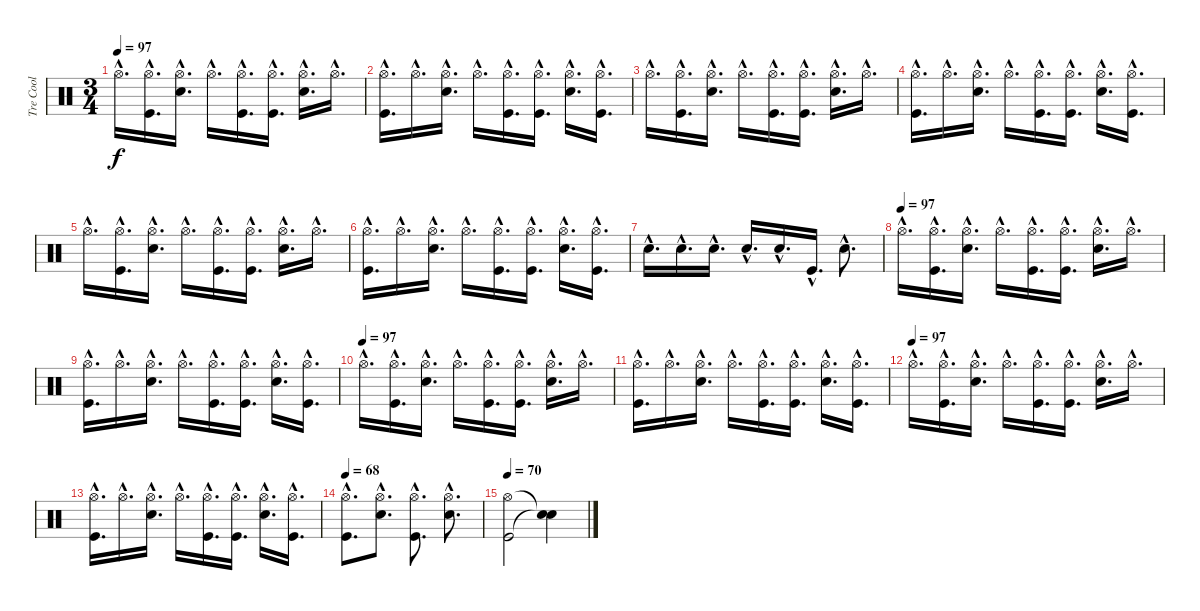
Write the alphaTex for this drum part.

\track ("Tre Cool" "Tre Cool") {instrument percussion}
\staff {score}
\articulation defaults
\ts (3 4)
\tempo 97
\clef neutral
\ks c "Hi-Hat (open)"{hac}.16{d dy f}
("Kick (hit)"{hac} "Hi-Hat (open)"{hac}).16{d} ("Snare (hit) 2"{hac} "Hi-Hat (open)"{hac}).16{d} "Hi-Hat (open)"{hac}.16{d} ("Kick (hit)"{hac} "Hi-Hat (open)"{hac}).16{d} ("Kick (hit)"{hac} "Hi-Hat (open)"{hac}).16{d} ("Snare (hit) 2"{hac} "Hi-Hat (open)"{hac}).16{d} "Hi-Hat (open)"{hac}.16{d} |
("Kick (hit)"{hac} "Hi-Hat (open)"{hac}).16{d} "Hi-Hat (open)"{hac}.16{d} ("Snare (hit) 2"{hac} "Hi-Hat (open)"{hac}).16{d} "Hi-Hat (open)"{hac}.16{d} ("Kick (hit)"{hac} "Hi-Hat (open)"{hac}).16{d} ("Kick (hit)"{hac} "Hi-Hat (open)"{hac}).16{d} ("Snare (hit) 2"{hac} "Hi-Hat (open)"{hac}).16{d} ("Kick (hit)"{hac} "Hi-Hat (open)"{hac}).16{d} |
"Hi-Hat (open)"{hac}.16{d} ("Kick (hit)"{hac} "Hi-Hat (open)"{hac}).16{d} ("Snare (hit) 2"{hac} "Hi-Hat (open)"{hac}).16{d} "Hi-Hat (open)"{hac}.16{d} ("Kick (hit)"{hac} "Hi-Hat (open)"{hac}).16{d} ("Kick (hit)"{hac} "Hi-Hat (open)"{hac}).16{d} ("Snare (hit) 2"{hac} "Hi-Hat (open)"{hac}).16{d} "Hi-Hat (open)"{hac}.16{d} |
("Kick (hit)"{hac} "Hi-Hat (open)"{hac}).16{d} "Hi-Hat (open)"{hac}.16{d} ("Snare (hit) 2"{hac} "Hi-Hat (open)"{hac}).16{d} "Hi-Hat (open)"{hac}.16{d} ("Kick (hit)"{hac} "Hi-Hat (open)"{hac}).16{d} ("Kick (hit)"{hac} "Hi-Hat (open)"{hac}).16{d} ("Snare (hit) 2"{hac} "Hi-Hat (open)"{hac}).16{d} ("Kick (hit)"{hac} "Hi-Hat (open)"{hac}).16{d} |
"Hi-Hat (open)"{hac}.16{d} ("Kick (hit)"{hac} "Hi-Hat (open)"{hac}).16{d} ("Snare (hit) 2"{hac} "Hi-Hat (open)"{hac}).16{d} "Hi-Hat (open)"{hac}.16{d} ("Kick (hit)"{hac} "Hi-Hat (open)"{hac}).16{d} ("Kick (hit)"{hac} "Hi-Hat (open)"{hac}).16{d} ("Snare (hit) 2"{hac} "Hi-Hat (open)"{hac}).16{d} "Hi-Hat (open)"{hac}.16{d} |
("Kick (hit)"{hac} "Hi-Hat (open)"{hac}).16{d} "Hi-Hat (open)"{hac}.16{d} ("Snare (hit) 2"{hac} "Hi-Hat (open)"{hac}).16{d} "Hi-Hat (open)"{hac}.16{d} ("Kick (hit)"{hac} "Hi-Hat (open)"{hac}).16{d} ("Kick (hit)"{hac} "Hi-Hat (open)"{hac}).16{d} ("Snare (hit) 2"{hac} "Hi-Hat (open)"{hac}).16{d} ("Kick (hit)"{hac} "Hi-Hat (open)"{hac}).16{d} |
"Snare (hit) 2"{hac}.16{d} "Snare (hit) 2"{hac}.16{d} "Snare (hit) 2"{hac}.16{d} "Snare (hit) 2"{hac}.16{d} "Snare (hit) 2"{hac}.16{d} "Kick (hit)"{hac}.16{d} "Snare (hit) 2"{hac}.8{d} |
\tempo (97)
"Hi-Hat (open)"{hac}.16{d} ("Kick (hit)"{hac} "Hi-Hat (open)"{hac}).16{d} ("Snare (hit) 2"{hac} "Hi-Hat (open)"{hac}).16{d} "Hi-Hat (open)"{hac}.16{d} ("Kick (hit)"{hac} "Hi-Hat (open)"{hac}).16{d} ("Kick (hit)"{hac} "Hi-Hat (open)"{hac}).16{d} ("Snare (hit) 2"{hac} "Hi-Hat (open)"{hac}).16{d} "Hi-Hat (open)"{hac}.16{d} |
("Kick (hit)"{hac} "Hi-Hat (open)"{hac}).16{d} "Hi-Hat (open)"{hac}.16{d} ("Snare (hit) 2"{hac} "Hi-Hat (open)"{hac}).16{d} "Hi-Hat (open)"{hac}.16{d} ("Kick (hit)"{hac} "Hi-Hat (open)"{hac}).16{d} ("Kick (hit)"{hac} "Hi-Hat (open)"{hac}).16{d} ("Snare (hit) 2"{hac} "Hi-Hat (open)"{hac}).16{d} ("Kick (hit)"{hac} "Hi-Hat (open)"{hac}).16{d} |
\tempo (97)
"Hi-Hat (open)"{hac}.16{d} ("Kick (hit)"{hac} "Hi-Hat (open)"{hac}).16{d} ("Snare (hit) 2"{hac} "Hi-Hat (open)"{hac}).16{d} "Hi-Hat (open)"{hac}.16{d} ("Kick (hit)"{hac} "Hi-Hat (open)"{hac}).16{d} ("Kick (hit)"{hac} "Hi-Hat (open)"{hac}).16{d} ("Snare (hit) 2"{hac} "Hi-Hat (open)"{hac}).16{d} "Hi-Hat (open)"{hac}.16{d} |
("Kick (hit)"{hac} "Hi-Hat (open)"{hac}).16{d} "Hi-Hat (open)"{hac}.16{d} ("Snare (hit) 2"{hac} "Hi-Hat (open)"{hac}).16{d} "Hi-Hat (open)"{hac}.16{d} ("Kick (hit)"{hac} "Hi-Hat (open)"{hac}).16{d} ("Kick (hit)"{hac} "Hi-Hat (open)"{hac}).16{d} ("Snare (hit) 2"{hac} "Hi-Hat (open)"{hac}).16{d} ("Kick (hit)"{hac} "Hi-Hat (open)"{hac}).16{d} |
\tempo (97)
"Hi-Hat (open)"{hac}.16{d} ("Kick (hit)"{hac} "Hi-Hat (open)"{hac}).16{d} ("Snare (hit) 2"{hac} "Hi-Hat (open)"{hac}).16{d} "Hi-Hat (open)"{hac}.16{d} ("Kick (hit)"{hac} "Hi-Hat (open)"{hac}).16{d} ("Kick (hit)"{hac} "Hi-Hat (open)"{hac}).16{d} ("Snare (hit) 2"{hac} "Hi-Hat (open)"{hac}).16{d} "Hi-Hat (open)"{hac}.16{d} |
("Kick (hit)"{hac} "Hi-Hat (open)"{hac}).16{d} "Hi-Hat (open)"{hac}.16{d} ("Snare (hit) 2"{hac} "Hi-Hat (open)"{hac}).16{d} "Hi-Hat (open)"{hac}.16{d} ("Kick (hit)"{hac} "Hi-Hat (open)"{hac}).16{d} ("Kick (hit)"{hac} "Hi-Hat (open)"{hac}).16{d} ("Snare (hit) 2"{hac} "Hi-Hat (open)"{hac}).16{d} ("Kick (hit)"{hac} "Hi-Hat (open)"{hac}).16{d} |
\tempo 68
("Kick (hit)"{hac} "Hi-Hat (open)"{hac}).8{d} ("Snare (hit) 2"{hac} "Hi-Hat (open)"{hac}).8{d} ("Kick (hit)"{hac} "Hi-Hat (open)"{hac}).8{d} ("Snare (hit) 2"{hac} "Hi-Hat (open)"{hac}).8{d} |
\tempo 70
("Kick (hit)" "Hi-Hat (open)").2 ("Snare (hit)"{t} "Snare (hit)"{t}).4
